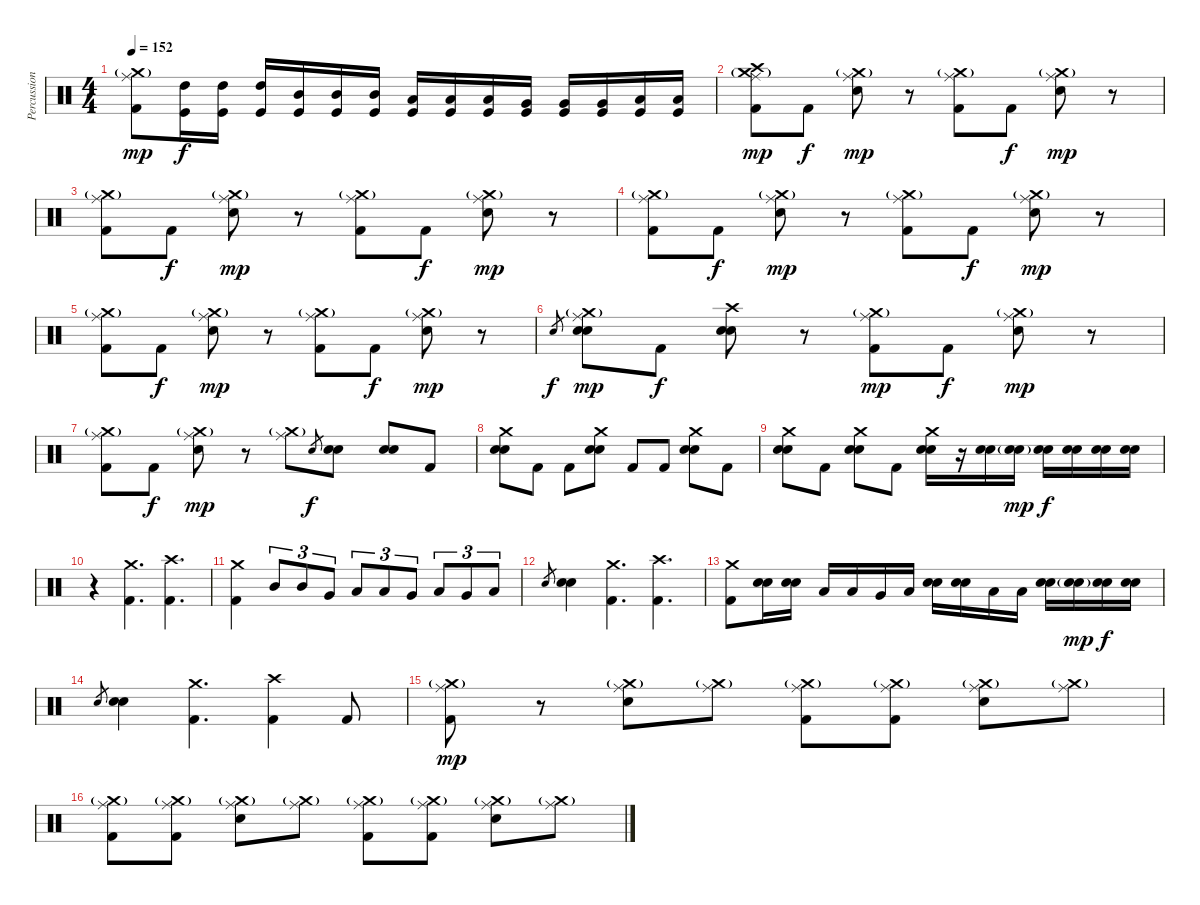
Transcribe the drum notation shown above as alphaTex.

\track ("Percussion" "Percussion") {instrument percussion}
\staff {score}
\articulation defaults
\ts (4 4)
\tempo 152
\clef neutral
\ks c
("Crash medium (hit)"{g} "Ride (middle)" "Kick (hit) 2").8{dy mp} ("High Tom (hit)" "Kick (hit)").16{dy f} ("High Tom (hit)" "Kick (hit)").16 ("High Tom (hit)" "Kick (hit)").16 ("Mid Tom (hit)" "Kick (hit)").16 ("Mid Tom (hit)" "Kick (hit)").16 ("Mid Tom (hit)" "Kick (hit)").16 ("Low Tom (hit)" "Kick (hit)").16 ("Low Tom (hit)" "Kick (hit)").16 ("Low Tom (hit)" "Kick (hit)").16 ("Very Low Tom (hit)" "Kick (hit)").16 ("Very Low Tom (hit)" "Kick (hit)").16 ("Very Low Tom (hit)" "Kick (hit)").16 ("Low Floor Tom (hit)" "Kick (hit)").16 ("Low Floor Tom (hit)" "Kick (hit)").16 |
("Crash medium (hit)"{g} "Ride (middle)" "Crash high (hit)" "Kick (hit) 2").8{dy mp} "Kick (hit) 2".8{dy f} ("Crash medium (hit)"{g} "Ride (middle)" "Electric Snare (hit)").8{dy mp} r.8 ("Crash medium (hit)"{g} "Ride (middle)" "Kick (hit) 2").8 "Kick (hit) 2".8{dy f} ("Crash medium (hit)"{g} "Ride (middle)" "Electric Snare (hit)").8{dy mp} r.8 |
("Crash medium (hit)"{g} "Ride (middle)" "Kick (hit) 2").8 "Kick (hit) 2".8{dy f} ("Crash medium (hit)"{g} "Ride (middle)" "Electric Snare (hit)").8{dy mp} r.8 ("Crash medium (hit)"{g} "Ride (middle)" "Kick (hit) 2").8 "Kick (hit) 2".8{dy f} ("Crash medium (hit)"{g} "Ride (middle)" "Electric Snare (hit)").8{dy mp} r.8 |
("Crash medium (hit)"{g} "Ride (middle)" "Kick (hit) 2").8 "Kick (hit) 2".8{dy f} ("Crash medium (hit)"{g} "Ride (middle)" "Electric Snare (hit)").8{dy mp} r.8 ("Crash medium (hit)"{g} "Ride (middle)" "Kick (hit) 2").8 "Kick (hit) 2".8{dy f} ("Crash medium (hit)"{g} "Ride (middle)" "Electric Snare (hit)").8{dy mp} r.8 |
("Crash medium (hit)"{g} "Ride (middle)" "Kick (hit) 2").8 "Kick (hit) 2".8{dy f} ("Crash medium (hit)"{g} "Ride (middle)" "Electric Snare (hit)").8{dy mp} r.8 ("Crash medium (hit)"{g} "Ride (middle)" "Kick (hit) 2").8 "Kick (hit) 2".8{dy f} ("Crash medium (hit)"{g} "Ride (middle)" "Electric Snare (hit)").8{dy mp} r.8 |
"Snare (hit) 2".8{gr dy f} ("Crash medium (hit)"{g} "Ride (middle)" "Snare (hit) 2" "Electric Snare (hit)").8{dy mp} "Kick (hit) 2".8{dy f} ("Crash high (hit)" "Snare (hit) 2" "Electric Snare (hit)").8 r.8 ("Crash medium (hit)"{g} "Ride (middle)" "Kick (hit) 2").8{dy mp} "Kick (hit) 2".8{dy f} ("Crash medium (hit)"{g} "Ride (middle)" "Electric Snare (hit)").8{dy mp} r.8 |
("Crash medium (hit)"{g} "Ride (middle)" "Kick (hit) 2").8 "Kick (hit) 2".8{dy f} ("Crash medium (hit)"{g} "Ride (middle)" "Electric Snare (hit)").8{dy mp} r.8 ("Crash medium (hit)"{g} "Ride (middle)").8 "Electric Snare (hit)".8{gr dy f} ("Electric Snare (hit)" "Snare (hit) 2").8 ("Electric Snare (hit)" "Snare (hit) 2").8 "Kick (hit) 2".8 |
("Crash medium (hit)" "Snare (hit) 2" "Electric Snare (hit)").8 "Kick (hit) 2".8 "Kick (hit) 2".8 ("Crash medium (hit)" "Snare (hit) 2" "Electric Snare (hit)").8 "Kick (hit) 2".8 "Kick (hit) 2".8 ("Crash medium (hit)" "Snare (hit) 2" "Electric Snare (hit)").8 "Kick (hit) 2".8 |
("Crash medium (hit)" "Snare (hit) 2" "Electric Snare (hit)").8 "Kick (hit) 2".8 ("Crash medium (hit)" "Snare (hit) 2" "Electric Snare (hit)").8 "Kick (hit) 2".8 ("Crash medium (hit)" "Electric Snare (hit)" "Snare (hit) 2").16 r.16 ("Snare (hit) 2" "Electric Snare (hit)").16 ("Snare (hit) 2"{g} "Electric Snare (hit)"{g}).16{dy mp} ("Snare (hit) 2" "Electric Snare (hit)").16{dy f} ("Snare (hit) 2" "Electric Snare (hit)").16 ("Snare (hit) 2" "Electric Snare (hit)").16 ("Snare (hit) 2" "Electric Snare (hit)").16 |
r.4 ("Crash medium (hit)" "Kick (hit) 2").4{d} ("Crash high (hit)" "Kick (hit) 2").4{d} |
("Crash medium (hit)" "Kick (hit) 2").4 "Mid Tom (hit)".8{tu (3 2)} "Mid Tom (hit)".8{tu (3 2)} "Very Low Tom (hit)".8{tu (3 2)} "Low Tom (hit)".8{tu (3 2)} "Low Tom (hit)".8{tu (3 2)} "Very Low Tom (hit)".8{tu (3 2)} "Low Floor Tom (hit)".8{tu (3 2)} "Very Low Tom (hit)".8{tu (3 2)} "Low Tom (hit)".8{tu (3 2)} |
"Snare (hit) 2".8{gr} ("Snare (hit) 2" "Electric Snare (hit)").4 ("Crash medium (hit)" "Kick (hit) 2").4{d} ("Crash high (hit)" "Kick (hit) 2").4{d} |
("Crash medium (hit)" "Kick (hit) 2").8 ("Snare (hit) 2" "Electric Snare (hit)").16 ("Snare (hit) 2" "Electric Snare (hit)").16 "Low Tom (hit)".16 "Low Tom (hit)".16 "Very Low Tom (hit)".16 "Low Floor Tom (hit)".16 ("Snare (hit) 2" "Electric Snare (hit)").16 ("Snare (hit) 2" "Electric Snare (hit)").16 "Low Tom (hit)".16 "Low Tom (hit)".16 ("Snare (hit) 2" "Electric Snare (hit)").16 ("Snare (hit) 2"{g} "Electric Snare (hit)"{g}).16{dy mp} ("Snare (hit) 2" "Electric Snare (hit)").16{dy f} ("Snare (hit) 2" "Electric Snare (hit)").16 |
"Snare (hit) 2".8{gr} ("Snare (hit) 2" "Electric Snare (hit)").4 ("Crash medium (hit)" "Kick (hit) 2").4{d} ("Crash high (hit)" "Kick (hit) 2").4 "Kick (hit) 2".8 |
("Crash medium (hit)"{g} "Ride (middle)" "Kick (hit) 2").8{dy mp} r.8 ("Crash medium (hit)"{g} "Ride (middle)" "Electric Snare (hit)").8 ("Crash medium (hit)"{g} "Ride (middle)").8 ("Crash medium (hit)"{g} "Ride (middle)" "Kick (hit) 2").8 ("Crash medium (hit)"{g} "Ride (middle)" "Kick (hit) 2").8 ("Crash medium (hit)"{g} "Ride (middle)" "Electric Snare (hit)").8 ("Crash medium (hit)"{g} "Ride (middle)").8 |
("Crash medium (hit)"{g} "Ride (middle)" "Kick (hit) 2").8 ("Crash medium (hit)"{g} "Ride (middle)" "Kick (hit) 2").8 ("Crash medium (hit)"{g} "Ride (middle)" "Electric Snare (hit)").8 ("Crash medium (hit)"{g} "Ride (middle)").8 ("Crash medium (hit)"{g} "Ride (middle)" "Kick (hit) 2").8 ("Crash medium (hit)"{g} "Ride (middle)" "Kick (hit) 2").8 ("Crash medium (hit)"{g} "Ride (middle)" "Electric Snare (hit)").8 ("Crash medium (hit)"{g} "Ride (middle)").8
